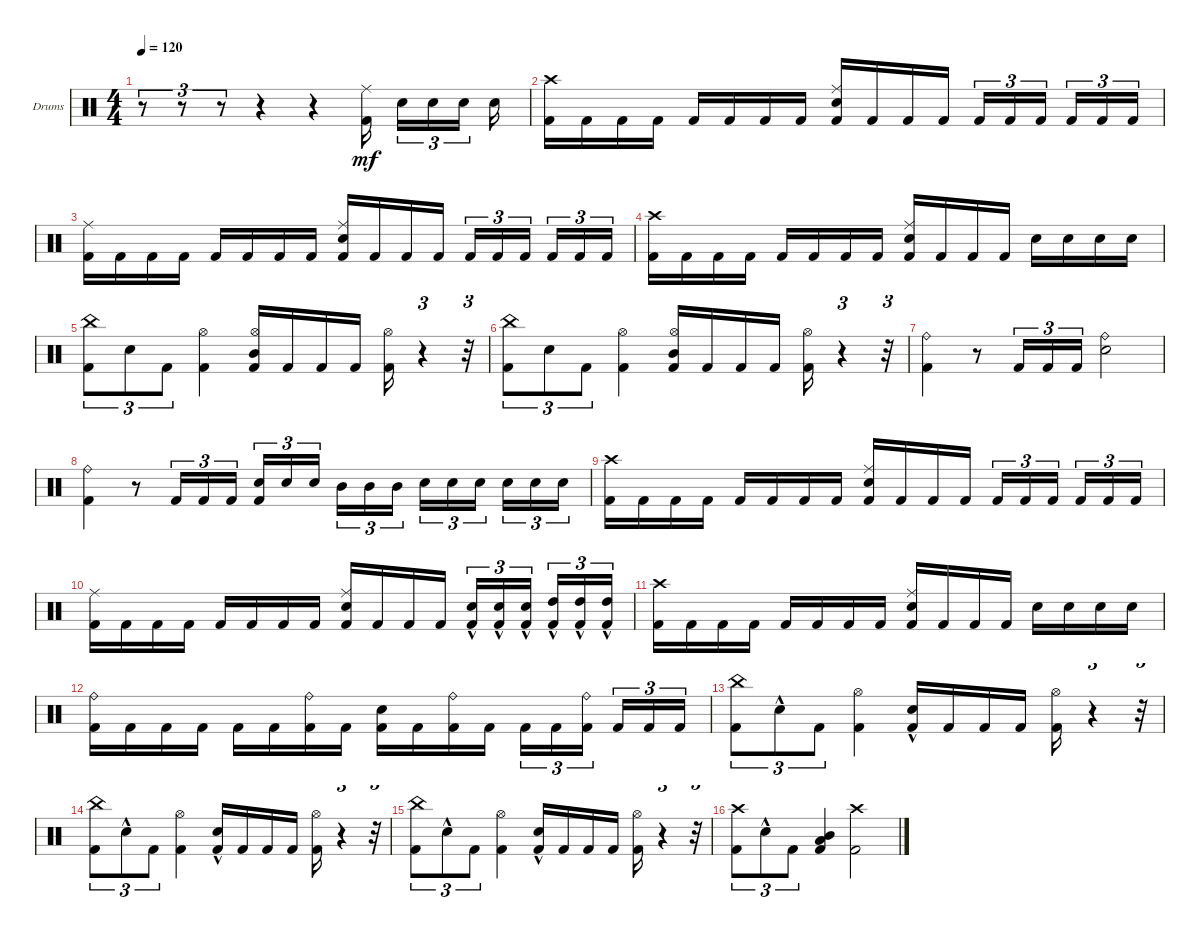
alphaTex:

\defaultSystemsLayout 4
\bracketExtendMode groupsimilarinstruments
\firstSystemTrackNameOrientation horizontal
\otherSystemsTrackNameOrientation horizontal
\track ("Drumkit" "Drums") {instrument percussion}
\staff {score}
\articulation defaults
\ts (4 4)
\tempo 120
\clef neutral
\ks c
r.8{tu (3 2) dy mf} r.8{tu (3 2)} r.8{tu (3 2)} r.4 r.4 ("Kick (hit) 2" "Ride (middle)").16 "Snare (hit) 2".16{tu (3 2)} "Snare (hit) 2".16{tu (3 2)} "Snare (hit) 2".16{tu (3 2)} "Snare (hit) 2".16 |
("Crash high (hit)" "Kick (hit) 2").16 "Kick (hit) 2".16 "Kick (hit) 2".16 "Kick (hit) 2".16 "Kick (hit) 2".16 "Kick (hit) 2".16 "Kick (hit) 2".16 "Kick (hit) 2".16 ("Kick (hit) 2" "Snare (hit) 2" "Ride (middle)").16 "Kick (hit) 2".16 "Kick (hit) 2".16 "Kick (hit) 2".16 "Kick (hit) 2".16{tu (3 2)} "Kick (hit) 2".16{tu (3 2)} "Kick (hit) 2".16{tu (3 2)} "Kick (hit) 2".16{tu (3 2)} "Kick (hit) 2".16{tu (3 2)} "Kick (hit) 2".16{tu (3 2)} |
("Kick (hit) 2" "Ride (middle)").16 "Kick (hit) 2".16 "Kick (hit) 2".16 "Kick (hit) 2".16 "Kick (hit) 2".16 "Kick (hit) 2".16 "Kick (hit) 2".16 "Kick (hit) 2".16 ("Kick (hit) 2" "Snare (hit) 2" "Ride (middle)").16 "Kick (hit) 2".16 "Kick (hit) 2".16 "Kick (hit) 2".16 "Kick (hit) 2".16{tu (3 2)} "Kick (hit) 2".16{tu (3 2)} "Kick (hit) 2".16{tu (3 2)} "Kick (hit) 2".16{tu (3 2)} "Kick (hit) 2".16{tu (3 2)} "Kick (hit) 2".16{tu (3 2)} |
("Crash high (hit)" "Kick (hit) 2").16 "Kick (hit) 2".16 "Kick (hit) 2".16 "Kick (hit) 2".16 "Kick (hit) 2".16 "Kick (hit) 2".16 "Kick (hit) 2".16 "Kick (hit) 2".16 ("Kick (hit) 2" "Snare (hit) 2" "Ride (middle)").16 "Kick (hit) 2".16 "Kick (hit) 2".16 "Kick (hit) 2".16 "Snare (hit) 2".16 "Snare (hit) 2".16 "Snare (hit) 2".16 "Snare (hit) 2".16 |
("Kick (hit) 2" "China (hit)").8{tu (3 2)} "Snare (hit) 2".8{tu (3 2)} "Kick (hit) 2".8{tu (3 2)} ("Kick (hit) 2" "Hi-Hat (open)").4 ("Mid Tom (hit)" "Hi-Hat (open)" "Kick (hit) 2").16 "Kick (hit) 2".16 "Kick (hit) 2".16 "Kick (hit) 2".16 ("Kick (hit) 2" "Hi-Hat (open)").16 r.4{tu (3 2)} r.32{tu (3 2)} |
("Kick (hit) 2" "China (hit)").8{tu (3 2)} "Snare (hit) 2".8{tu (3 2)} "Kick (hit) 2".8{tu (3 2)} ("Kick (hit) 2" "Hi-Hat (open)").4 ("Mid Tom (hit)" "Hi-Hat (open)" "Kick (hit) 2").16 "Kick (hit) 2".16 "Kick (hit) 2".16 "Kick (hit) 2".16 ("Kick (hit) 2" "Hi-Hat (open)").16 r.4{tu (3 2)} r.32{tu (3 2)} |
("Ride (bell)" "Kick (hit) 2").4 r.8 "Kick (hit) 2".16{tu (3 2)} "Kick (hit) 2".16{tu (3 2)} "Kick (hit) 2".16{tu (3 2)} ("Snare (hit) 2" "Ride (bell)").2 |
("Ride (bell)" "Kick (hit) 2").4 r.8 "Kick (hit) 2".16{tu (3 2)} "Kick (hit) 2".16{tu (3 2)} "Kick (hit) 2".16{tu (3 2)} ("Snare (hit) 2" "Kick (hit) 2").16{tu (3 2)} "Snare (hit) 2".16{tu (3 2)} "Snare (hit) 2".16{tu (3 2)} "Mid Tom (hit)".16{tu (3 2)} "Mid Tom (hit)".16{tu (3 2)} "Mid Tom (hit)".16{tu (3 2)} "Snare (hit) 2".16{tu (3 2)} "Snare (hit) 2".16{tu (3 2)} "Snare (hit) 2".16{tu (3 2)} "Snare (hit) 2".16{tu (3 2)} "Snare (hit) 2".16{tu (3 2)} "Snare (hit) 2".16{tu (3 2)} |
("Crash high (hit)" "Kick (hit) 2").16 "Kick (hit) 2".16 "Kick (hit) 2".16 "Kick (hit) 2".16 "Kick (hit) 2".16 "Kick (hit) 2".16 "Kick (hit) 2".16 "Kick (hit) 2".16 ("Kick (hit) 2" "Snare (hit) 2" "Ride (middle)").16 "Kick (hit) 2".16 "Kick (hit) 2".16 "Kick (hit) 2".16 "Kick (hit) 2".16{tu (3 2)} "Kick (hit) 2".16{tu (3 2)} "Kick (hit) 2".16{tu (3 2)} "Kick (hit) 2".16{tu (3 2)} "Kick (hit) 2".16{tu (3 2)} "Kick (hit) 2".16{tu (3 2)} |
("Kick (hit) 2" "Ride (middle)").16 "Kick (hit) 2".16 "Kick (hit) 2".16 "Kick (hit) 2".16 "Kick (hit) 2".16 "Kick (hit) 2".16 "Kick (hit) 2".16 "Kick (hit) 2".16 ("Kick (hit) 2" "Snare (hit) 2" "Ride (middle)").16 "Kick (hit) 2".16 "Kick (hit) 2".16 "Kick (hit) 2".16 ("Kick (hit) 2" "Snare (hit) 2"{hac}).16{tu (3 2)} ("Kick (hit) 2" "Snare (hit) 2"{hac}).16{tu (3 2)} ("Kick (hit) 2" "Snare (hit) 2"{hac}).16{tu (3 2)} ("Kick (hit) 2" "High Tom (hit)"{hac}).16{tu (3 2)} ("Kick (hit) 2" "High Tom (hit)"{hac}).16{tu (3 2)} ("Kick (hit) 2" "High Tom (hit)"{hac}).16{tu (3 2)} |
("Crash high (hit)" "Kick (hit) 2").16 "Kick (hit) 2".16 "Kick (hit) 2".16 "Kick (hit) 2".16 "Kick (hit) 2".16 "Kick (hit) 2".16 "Kick (hit) 2".16 "Kick (hit) 2".16 ("Kick (hit) 2" "Snare (hit) 2" "Ride (middle)").16 "Kick (hit) 2".16 "Kick (hit) 2".16 "Kick (hit) 2".16 "Snare (hit) 2".16 "Snare (hit) 2".16 "Snare (hit) 2".16 "Snare (hit) 2".16 |
("Kick (hit) 2" "Ride (bell)").16 "Kick (hit) 2".16 "Kick (hit) 2".16 "Kick (hit) 2".16 "Kick (hit) 2".16 "Kick (hit) 2".16 ("Kick (hit) 2" "Ride (bell)").16 "Kick (hit) 2".16 ("Kick (hit) 2" "Snare (hit) 2").16 "Kick (hit) 2".16 ("Kick (hit) 2" "Ride (bell)").16 "Kick (hit) 2".16 "Kick (hit) 2".16{tu (3 2)} "Kick (hit) 2".16{tu (3 2)} ("Kick (hit) 2" "Ride (bell)").16{tu (3 2)} "Kick (hit) 2".16{tu (3 2)} "Kick (hit) 2".16{tu (3 2)} "Kick (hit) 2".16{tu (3 2)} |
("Kick (hit) 2" "China (hit)").8{tu (3 2)} "Snare (hit) 2"{hac}.8{tu (3 2)} "Kick (hit) 2".8{tu (3 2)} ("Kick (hit) 2" "Hi-Hat (open)").4 ("Kick (hit) 2" "Snare (hit) 2"{hac}).16 "Kick (hit) 2".16 "Kick (hit) 2".16 "Kick (hit) 2".16 ("Kick (hit) 2" "Hi-Hat (open)").16 r.4{tu (3 2)} r.32{tu (3 2)} |
("Kick (hit) 2" "China (hit)").8{tu (3 2)} "Snare (hit) 2"{hac}.8{tu (3 2)} "Kick (hit) 2".8{tu (3 2)} ("Kick (hit) 2" "Hi-Hat (open)").4 ("Kick (hit) 2" "Snare (hit) 2"{hac}).16 "Kick (hit) 2".16 "Kick (hit) 2".16 "Kick (hit) 2".16 ("Kick (hit) 2" "Hi-Hat (open)").16 r.4{tu (3 2)} r.32{tu (3 2)} |
("Kick (hit) 2" "China (hit)").8{tu (3 2)} "Snare (hit) 2"{hac}.8{tu (3 2)} "Kick (hit) 2".8{tu (3 2)} ("Kick (hit) 2" "Hi-Hat (open)").4 ("Kick (hit) 2" "Snare (hit) 2"{hac}).16 "Kick (hit) 2".16 "Kick (hit) 2".16 "Kick (hit) 2".16 ("Kick (hit) 2" "Hi-Hat (open)").16 r.4{tu (3 2)} r.32{tu (3 2)} |
("Crash high (hit)" "Kick (hit) 2").8{tu (3 2)} "Snare (hit) 2"{hac}.8{tu (3 2)} "Kick (hit) 2".8{tu (3 2)} ("Kick (hit) 2" "Low Tom (hit)" "Mid Tom (hit)").4 ("Kick (hit) 2" "Crash high (hit)").2
